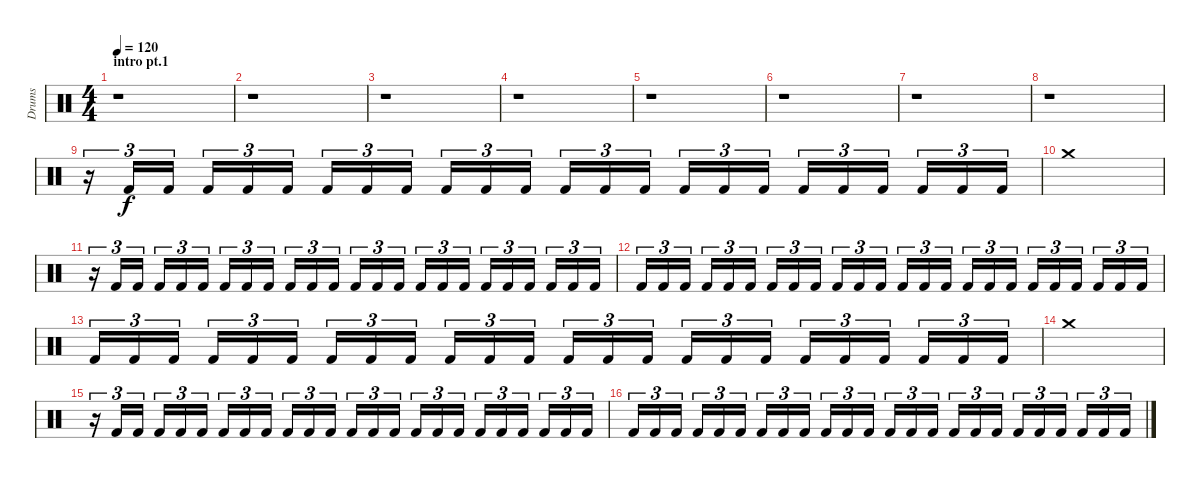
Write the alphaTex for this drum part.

\track ("Drums" "Drums") {instrument percussion}
\staff {score}
\articulation defaults
\ts (4 4)
\section ("" "intro pt.1")
\tempo 120
\clef neutral
\ks c
r.1{dy f} |
r.1 |
r.1 |
r.1 |
r.1 |
r.1 |
r.1 |
r.1{volume 3 balance 11} |
r.16{tu (3 2) volume 4} "Kick (hit) 2".16{tu (3 2) volume 11} "Kick (hit) 2".16{tu (3 2)} "Kick (hit) 2".16{tu (3 2)} "Kick (hit) 2".16{tu (3 2)} "Kick (hit) 2".16{tu (3 2)} "Kick (hit) 2".16{tu (3 2)} "Kick (hit) 2".16{tu (3 2)} "Kick (hit) 2".16{tu (3 2)} "Kick (hit) 2".16{tu (3 2)} "Kick (hit) 2".16{tu (3 2)} "Kick (hit) 2".16{tu (3 2)} "Kick (hit) 2".16{tu (3 2)} "Kick (hit) 2".16{tu (3 2)} "Kick (hit) 2".16{tu (3 2)} "Kick (hit) 2".16{tu (3 2)} "Kick (hit) 2".16{tu (3 2)} "Kick (hit) 2".16{tu (3 2)} "Kick (hit) 2".16{tu (3 2)} "Kick (hit) 2".16{tu (3 2)} "Kick (hit) 2".16{tu (3 2)} "Kick (hit) 2".16{tu (3 2)} "Kick (hit) 2".16{tu (3 2)} "Kick (hit) 2".16{tu (3 2)} |
"Crash medium (hit)".1 |
r.16{tu (3 2) volume 4} "Kick (hit) 2".16{tu (3 2) volume 11} "Kick (hit) 2".16{tu (3 2)} "Kick (hit) 2".16{tu (3 2)} "Kick (hit) 2".16{tu (3 2)} "Kick (hit) 2".16{tu (3 2)} "Kick (hit) 2".16{tu (3 2)} "Kick (hit) 2".16{tu (3 2)} "Kick (hit) 2".16{tu (3 2)} "Kick (hit) 2".16{tu (3 2)} "Kick (hit) 2".16{tu (3 2)} "Kick (hit) 2".16{tu (3 2)} "Kick (hit) 2".16{tu (3 2)} "Kick (hit) 2".16{tu (3 2)} "Kick (hit) 2".16{tu (3 2)} "Kick (hit) 2".16{tu (3 2)} "Kick (hit) 2".16{tu (3 2)} "Kick (hit) 2".16{tu (3 2)} "Kick (hit) 2".16{tu (3 2)} "Kick (hit) 2".16{tu (3 2)} "Kick (hit) 2".16{tu (3 2)} "Kick (hit) 2".16{tu (3 2)} "Kick (hit) 2".16{tu (3 2)} "Kick (hit) 2".16{tu (3 2)} |
"Kick (hit) 2".16{tu (3 2)} "Kick (hit) 2".16{tu (3 2) volume 4} "Kick (hit) 2".16{tu (3 2)} "Kick (hit) 2".16{tu (3 2)} "Kick (hit) 2".16{tu (3 2)} "Kick (hit) 2".16{tu (3 2)} "Kick (hit) 2".16{tu (3 2)} "Kick (hit) 2".16{tu (3 2)} "Kick (hit) 2".16{tu (3 2)} "Kick (hit) 2".16{tu (3 2)} "Kick (hit) 2".16{tu (3 2)} "Kick (hit) 2".16{tu (3 2)} "Kick (hit) 2".16{tu (3 2)} "Kick (hit) 2".16{tu (3 2)} "Kick (hit) 2".16{tu (3 2)} "Kick (hit) 2".16{tu (3 2)} "Kick (hit) 2".16{tu (3 2)} "Kick (hit) 2".16{tu (3 2)} "Kick (hit) 2".16{tu (3 2)} "Kick (hit) 2".16{tu (3 2)} "Kick (hit) 2".16{tu (3 2)} "Kick (hit) 2".16{tu (3 2)} "Kick (hit) 2".16{tu (3 2)} "Kick (hit) 2".16{tu (3 2)} |
"Kick (hit) 2".16{tu (3 2) volume 11} "Kick (hit) 2".16{tu (3 2)} "Kick (hit) 2".16{tu (3 2)} "Kick (hit) 2".16{tu (3 2)} "Kick (hit) 2".16{tu (3 2)} "Kick (hit) 2".16{tu (3 2)} "Kick (hit) 2".16{tu (3 2)} "Kick (hit) 2".16{tu (3 2)} "Kick (hit) 2".16{tu (3 2)} "Kick (hit) 2".16{tu (3 2)} "Kick (hit) 2".16{tu (3 2)} "Kick (hit) 2".16{tu (3 2)} "Kick (hit) 2".16{tu (3 2)} "Kick (hit) 2".16{tu (3 2)} "Kick (hit) 2".16{tu (3 2)} "Kick (hit) 2".16{tu (3 2)} "Kick (hit) 2".16{tu (3 2)} "Kick (hit) 2".16{tu (3 2)} "Kick (hit) 2".16{tu (3 2)} "Kick (hit) 2".16{tu (3 2)} "Kick (hit) 2".16{tu (3 2)} "Kick (hit) 2".16{tu (3 2)} "Kick (hit) 2".16{tu (3 2)} "Kick (hit) 2".16{tu (3 2)} |
"Crash medium (hit)".1 |
r.16{tu (3 2) volume 4} "Kick (hit) 2".16{tu (3 2) volume 11} "Kick (hit) 2".16{tu (3 2)} "Kick (hit) 2".16{tu (3 2)} "Kick (hit) 2".16{tu (3 2)} "Kick (hit) 2".16{tu (3 2)} "Kick (hit) 2".16{tu (3 2)} "Kick (hit) 2".16{tu (3 2)} "Kick (hit) 2".16{tu (3 2)} "Kick (hit) 2".16{tu (3 2)} "Kick (hit) 2".16{tu (3 2)} "Kick (hit) 2".16{tu (3 2)} "Kick (hit) 2".16{tu (3 2)} "Kick (hit) 2".16{tu (3 2)} "Kick (hit) 2".16{tu (3 2)} "Kick (hit) 2".16{tu (3 2)} "Kick (hit) 2".16{tu (3 2)} "Kick (hit) 2".16{tu (3 2)} "Kick (hit) 2".16{tu (3 2)} "Kick (hit) 2".16{tu (3 2)} "Kick (hit) 2".16{tu (3 2)} "Kick (hit) 2".16{tu (3 2)} "Kick (hit) 2".16{tu (3 2)} "Kick (hit) 2".16{tu (3 2)} |
"Kick (hit) 2".16{tu (3 2)} "Kick (hit) 2".16{tu (3 2) volume 4} "Kick (hit) 2".16{tu (3 2)} "Kick (hit) 2".16{tu (3 2)} "Kick (hit) 2".16{tu (3 2)} "Kick (hit) 2".16{tu (3 2)} "Kick (hit) 2".16{tu (3 2)} "Kick (hit) 2".16{tu (3 2)} "Kick (hit) 2".16{tu (3 2)} "Kick (hit) 2".16{tu (3 2)} "Kick (hit) 2".16{tu (3 2)} "Kick (hit) 2".16{tu (3 2)} "Kick (hit) 2".16{tu (3 2)} "Kick (hit) 2".16{tu (3 2)} "Kick (hit) 2".16{tu (3 2)} "Kick (hit) 2".16{tu (3 2)} "Kick (hit) 2".16{tu (3 2)} "Kick (hit) 2".16{tu (3 2)} "Kick (hit) 2".16{tu (3 2)} "Kick (hit) 2".16{tu (3 2)} "Kick (hit) 2".16{tu (3 2)} "Kick (hit) 2".16{tu (3 2)} "Kick (hit) 2".16{tu (3 2)} "Kick (hit) 2".16{tu (3 2)}
